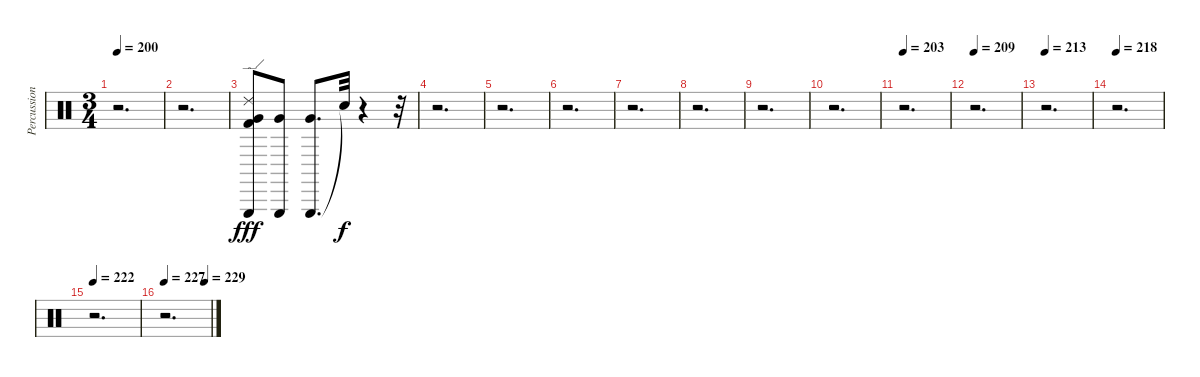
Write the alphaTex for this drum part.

\track ("Percussion." "Percussion") {instrument percussion}
\staff {score}
\articulation defaults
\ts (3 4)
\tempo 200
\clef neutral
\ks c
r.2{d dy f} |
r.2{d} |
("Triangle (hit)" "Ride (edge) 2" "Kick (hit) 2" "Very Low Tom (hit)").8{dy fff} ("Triangle (hit)" "Very Low Tom (hit)").8 ("Triangle (hit)" "Very Low Tom (hit)").8{d} "Snare (hit)"{t}.32{dy f} r.4 r.32 |
r.2{d} |
r.2{d} |
r.2{d} |
r.2{d} |
r.2{d} |
r.2{d} |
r.2{d} |
\tempo 203
r.2{d} |
\tempo 209
r.2{d} |
\tempo 213
r.2{d} |
\tempo 218
r.2{d} |
\tempo 222
r.2{d} |
\tempo 227
\tempo (229 0.875)
r.2{d}
